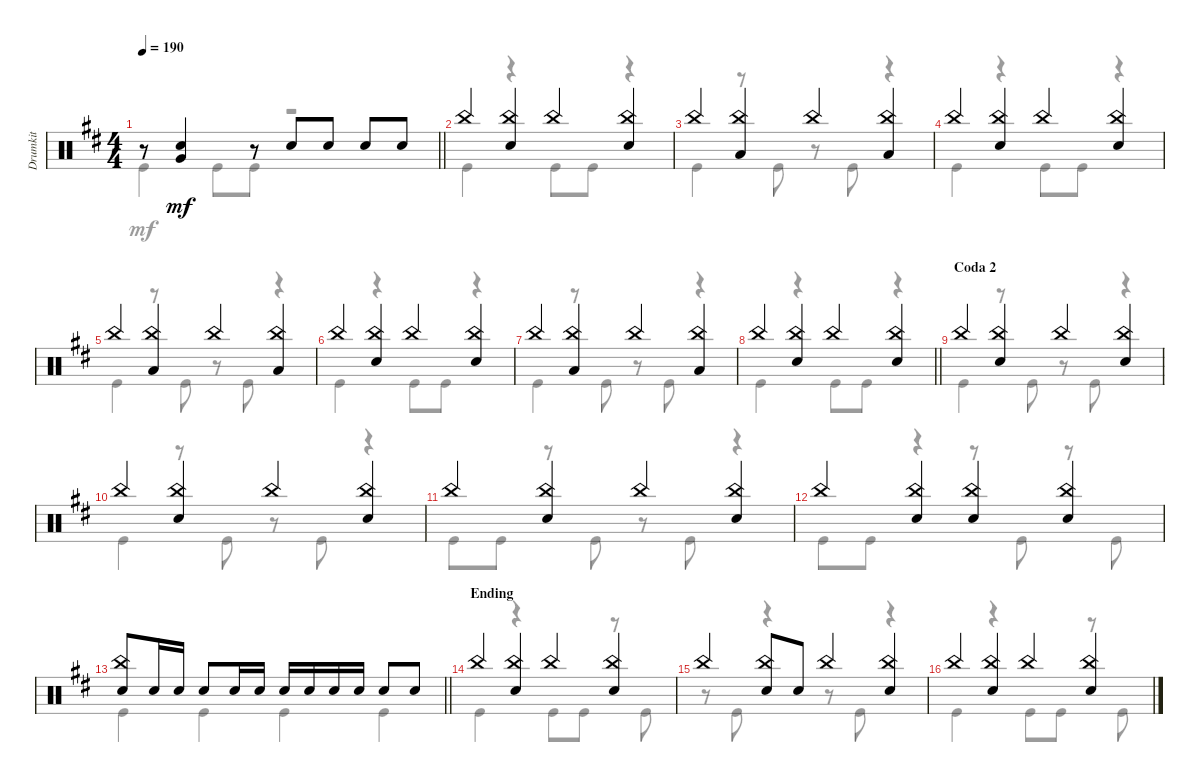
\track ("Drumkit" "Drumkit") {instrument percussion}
\staff {score}
\articulation defaults
\voice
\ts (4 4)
\tempo 190
\clef neutral
\barLineRight lightlight
\ks d
r.8{dy mf} ("Snare (hit) 2" "Very Low Tom (hit)").4 r.8 "Snare (hit) 2".8 "Snare (hit) 2".8 "Snare (hit) 2".8 "Snare (hit) 2".8 |
\section ("" "")
"China (hit)".4 ("China (hit)" "Snare (hit) 2").4 "China (hit)".4 ("China (hit)" "Snare (hit) 2").4 |
"China (hit)".4 ("China (hit)" "Low Tom (hit)").4 "China (hit)".4 ("China (hit)" "Low Tom (hit)").4 |
"China (hit)".4 ("China (hit)" "Snare (hit) 2").4 "China (hit)".4 ("China (hit)" "Snare (hit) 2").4 |
"China (hit)".4 ("China (hit)" "Low Tom (hit)").4 "China (hit)".4 ("China (hit)" "Low Tom (hit)").4 |
"China (hit)".4 ("China (hit)" "Snare (hit) 2").4 "China (hit)".4 ("China (hit)" "Snare (hit) 2").4 |
"China (hit)".4 ("China (hit)" "Low Tom (hit)").4 "China (hit)".4 ("China (hit)" "Low Tom (hit)").4 |
\barLineRight lightlight "China (hit)".4
("China (hit)" "Snare (hit) 2").4 "China (hit)".4 ("China (hit)" "Snare (hit) 2").4 |
\section ("" "Coda 2")
"China (hit)".4 ("China (hit)" "Snare (hit) 2").4 "China (hit)".4 ("China (hit)" "Snare (hit) 2").4 |
"China (hit)".4 ("China (hit)" "Snare (hit) 2").4 "China (hit)".4 ("China (hit)" "Snare (hit) 2").4 |
"China (hit)".4 ("China (hit)" "Snare (hit) 2").4 "China (hit)".4 ("China (hit)" "Snare (hit) 2").4 |
"China (hit)".4 ("China (hit)" "Snare (hit) 2").4 ("China (hit)" "Snare (hit) 2").4 ("China (hit)" "Snare (hit) 2").4 |
\barLineRight lightlight
("China (hit)" "Snare (hit) 2").8 "Snare (hit) 2".16 "Snare (hit) 2".16 "Snare (hit) 2".8 "Snare (hit) 2".16 "Snare (hit) 2".16 "Snare (hit) 2".16 "Snare (hit) 2".16 "Snare (hit) 2".16 "Snare (hit) 2".16 "Snare (hit) 2".8 "Snare (hit) 2".8 |
\section ("" "Ending")
"China (hit)".4 ("China (hit)" "Snare (hit) 2").4 "China (hit)".4 ("China (hit)" "Snare (hit) 2").4 |
"China (hit)".4 ("China (hit)" "Snare (hit) 2").8 "Snare (hit) 2".8 "China (hit)".4 ("China (hit)" "Snare (hit) 2").4 |
"China (hit)".4 ("China (hit)" "Snare (hit) 2").4 "China (hit)".4 ("China (hit)" "Snare (hit) 2").4
\voice
\clef neutral
\ottava regular
\simile none
\barLineRight lightlight
\ks d "Kick (hit)".4{dy mf} "Kick (hit)".8 "Kick (hit)".8
r.2 |
"Kick (hit)".4 r.4 "Kick (hit)".8 "Kick (hit)".8 r.4 |
"Kick (hit)".4 r.8 "Kick (hit)".8 r.8 "Kick (hit)".8 r.4 |
"Kick (hit)".4 r.4 "Kick (hit)".8 "Kick (hit)".8 r.4 |
"Kick (hit)".4 r.8 "Kick (hit)".8 r.8 "Kick (hit)".8 r.4 |
"Kick (hit)".4 r.4 "Kick (hit)".8 "Kick (hit)".8 r.4 |
"Kick (hit)".4 r.8 "Kick (hit)".8 r.8 "Kick (hit)".8 r.4 |
\barLineRight lightlight "Kick (hit)".4
r.4 "Kick (hit)".8 "Kick (hit)".8 r.4 |
"Kick (hit)".4 r.8 "Kick (hit)".8 r.8 "Kick (hit)".8 r.4 |
"Kick (hit)".4 r.8 "Kick (hit)".8 r.8 "Kick (hit)".8 r.4 |
"Kick (hit)".8 "Kick (hit)".8 r.8 "Kick (hit)".8 r.8 "Kick (hit)".8 r.4 |
"Kick (hit)".8 "Kick (hit)".8 r.4 r.8 "Kick (hit)".8 r.8 "Kick (hit)".8 |
\barLineRight lightlight "Kick (hit)".4 "Kick (hit)".4 "Kick (hit)".4 "Kick (hit)".4
|
"Kick (hit)".4 r.4 "Kick (hit)".8 "Kick (hit)".8 r.8 "Kick (hit)".8 |
r.8 "Kick (hit)".8 r.4 r.8 "Kick (hit)".8 r.4 |
"Kick (hit)".4 r.4 "Kick (hit)".8 "Kick (hit)".8 r.8 "Kick (hit)".8
